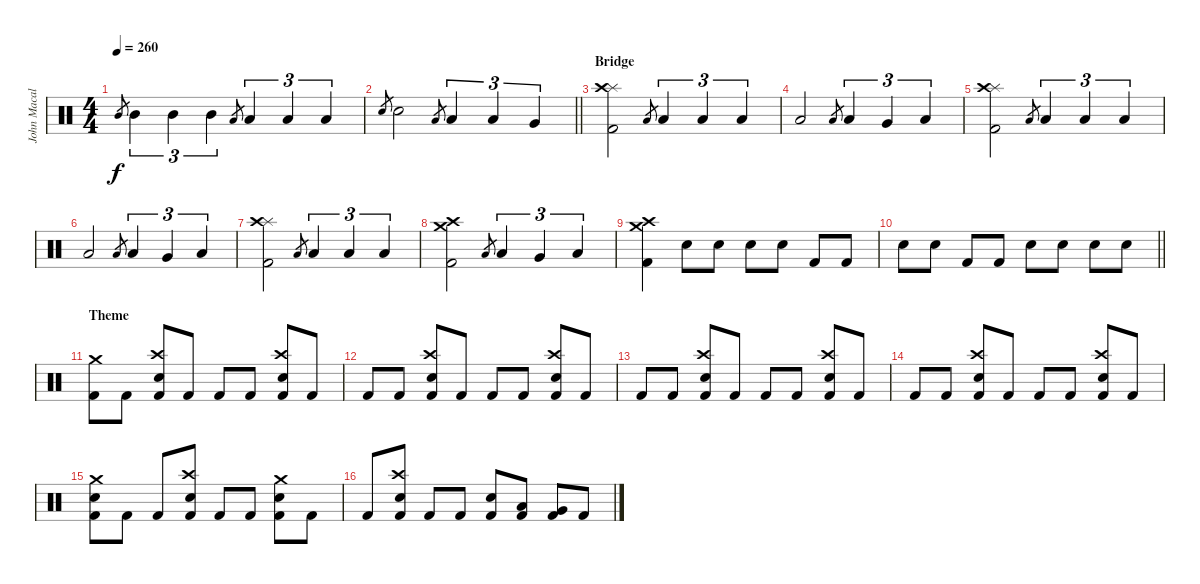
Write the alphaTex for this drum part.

\track ("John Macaluso" "John Macal") {instrument percussion}
\staff {score}
\articulation defaults
\ts (4 4)
\tempo 260
\clef neutral
\ks c "Mid Tom (hit)".8{gr dy f} "Mid Tom (hit)".4{tu (3 2)} "Mid Tom (hit)".4{tu (3 2)} "Mid Tom (hit)".4{tu (3 2)} "Low Tom (hit)".8{gr} "Low Tom (hit)".4{tu (3 2)} "Low Tom (hit)".4{tu (3 2)} "Low Tom (hit)".4{tu (3 2)}
|
\barLineRight lightlight "Snare (hit) 2".8{gr} "Snare (hit) 2".2 "Low Tom (hit)".8{gr} "Low Tom (hit)".4{tu (3 2)} "Low Tom (hit)".4{tu (3 2)} "Very Low Tom (hit)".4{tu (3 2)}
|
\section ("" "Bridge")
("Splash (hit)" "Crash high (hit)" "Kick (hit) 2").2 "Low Tom (hit)".8{gr} "Low Tom (hit)".4{tu (3 2)} "Low Tom (hit)".4{tu (3 2)} "Low Tom (hit)".4{tu (3 2)} |
"Low Tom (hit)".2 "Low Tom (hit)".8{gr} "Low Tom (hit)".4{tu (3 2)} "Very Low Tom (hit)".4{tu (3 2)} "Low Floor Tom (hit)".4{tu (3 2)} |
("Splash (hit)" "Crash high (hit)" "Kick (hit) 2").2 "Low Tom (hit)".8{gr} "Low Tom (hit)".4{tu (3 2)} "Low Tom (hit)".4{tu (3 2)} "Low Tom (hit)".4{tu (3 2)} |
"Low Tom (hit)".2 "Low Tom (hit)".8{gr} "Low Tom (hit)".4{tu (3 2)} "Very Low Tom (hit)".4{tu (3 2)} "Low Floor Tom (hit)".4{tu (3 2)} |
("Splash (hit)" "Crash high (hit)" "Kick (hit) 2").2 "Low Tom (hit)".8{gr} "Low Tom (hit)".4{tu (3 2)} "Low Tom (hit)".4{tu (3 2)} "Low Tom (hit)".4{tu (3 2)} |
("Crash medium (hit)" "Crash high (hit)" "Kick (hit) 2").2 "Low Tom (hit)".8{gr} "Low Tom (hit)".4{tu (3 2)} "Very Low Tom (hit)".4{tu (3 2)} "Low Floor Tom (hit)".4{tu (3 2)} |
("Crash high (hit)" "Crash medium (hit)" "Kick (hit) 2").4 "Snare (hit) 2".8 "Snare (hit) 2".8 "Snare (hit) 2".8 "Snare (hit) 2".8 "Kick (hit) 2".8 "Kick (hit) 2".8 |
\barLineRight lightlight "Snare (hit) 2".8 "Snare (hit) 2".8 "Kick (hit) 2".8 "Kick (hit) 2".8 "Snare (hit) 2".8 "Snare (hit) 2".8 "Snare (hit) 2".8 "Snare (hit) 2".8
|
\section ("" "Theme")
("Crash medium (hit)" "Kick (hit) 2").8 "Kick (hit) 2".8 ("Crash high (hit)" "Snare (hit) 2" "Kick (hit) 2").8 "Kick (hit) 2".8 "Kick (hit) 2".8 "Kick (hit) 2".8 ("Crash high (hit)" "Snare (hit) 2" "Kick (hit) 2").8 "Kick (hit) 2".8 |
"Kick (hit) 2".8 "Kick (hit) 2".8 ("Crash high (hit)" "Snare (hit) 2" "Kick (hit) 2").8 "Kick (hit) 2".8 "Kick (hit) 2".8 "Kick (hit) 2".8 ("Crash high (hit)" "Snare (hit) 2" "Kick (hit) 2").8 "Kick (hit) 2".8 |
"Kick (hit) 2".8 "Kick (hit) 2".8 ("Crash high (hit)" "Snare (hit) 2" "Kick (hit) 2").8 "Kick (hit) 2".8 "Kick (hit) 2".8 "Kick (hit) 2".8 ("Crash high (hit)" "Snare (hit) 2" "Kick (hit) 2").8 "Kick (hit) 2".8 |
"Kick (hit) 2".8 "Kick (hit) 2".8 ("Crash high (hit)" "Snare (hit) 2" "Kick (hit) 2").8 "Kick (hit) 2".8 "Kick (hit) 2".8 "Kick (hit) 2".8 ("Crash high (hit)" "Snare (hit) 2" "Kick (hit) 2").8 "Kick (hit) 2".8 |
("Crash medium (hit)" "Snare (hit) 2" "Kick (hit) 2").8 "Kick (hit) 2".8 "Kick (hit) 2".8 ("Crash high (hit)" "Snare (hit) 2" "Kick (hit) 2").8 "Kick (hit) 2".8 "Kick (hit) 2".8 ("Crash medium (hit)" "Snare (hit) 2" "Kick (hit) 2").8 "Kick (hit) 2".8 |
"Kick (hit) 2".8 ("Crash high (hit)" "Snare (hit) 2" "Kick (hit) 2").8 "Kick (hit) 2".8 "Kick (hit) 2".8 ("Snare (hit) 2" "Kick (hit) 2").8 ("Low Tom (hit)" "Kick (hit) 2").8 ("Very Low Tom (hit)" "Kick (hit) 2").8 "Kick (hit) 2".8
